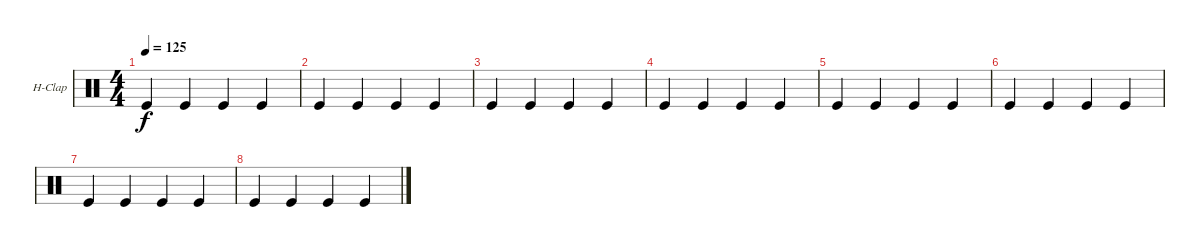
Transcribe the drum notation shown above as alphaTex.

\defaultSystemsLayout 4
\bracketExtendMode groupsimilarinstruments
\firstSystemTrackNameOrientation horizontal
\otherSystemsTrackNameOrientation horizontal
\track ("Hand Clap" "H-Clap") {instrument percussion}
\staff {score}
\articulation defaults
\ts (4 4)
\tempo 125
\clef neutral
\scale
0.333333
\ks c "Kick (hit)".4{dy f} "Kick (hit)".4 "Kick (hit)".4 "Kick (hit)".4
|
\scale
0.333333 "Kick (hit)".4 "Kick (hit)".4 "Kick (hit)".4 "Kick (hit)".4 |
\scale
0.333333 "Kick (hit)".4 "Kick (hit)".4 "Kick (hit)".4 "Kick (hit)".4 |
\scale
0.333333 "Kick (hit)".4 "Kick (hit)".4 "Kick (hit)".4 "Kick (hit)".4 |
\scale
0.333333 "Kick (hit)".4 "Kick (hit)".4 "Kick (hit)".4 "Kick (hit)".4 |
\scale
0.333333 "Kick (hit)".4 "Kick (hit)".4 "Kick (hit)".4 "Kick (hit)".4 |
\scale
0.333333 "Kick (hit)".4 "Kick (hit)".4 "Kick (hit)".4 "Kick (hit)".4 |
\scale
0.333333 "Kick (hit)".4 "Kick (hit)".4 "Kick (hit)".4 "Kick (hit)".4 |
\scale
0.333333 |
\scale
0.333333 |
\scale
0.333333 |
\scale
0.333333 |
\scale
0.333333 |
|
\scale
0.333333 |
\scale
0.333333
